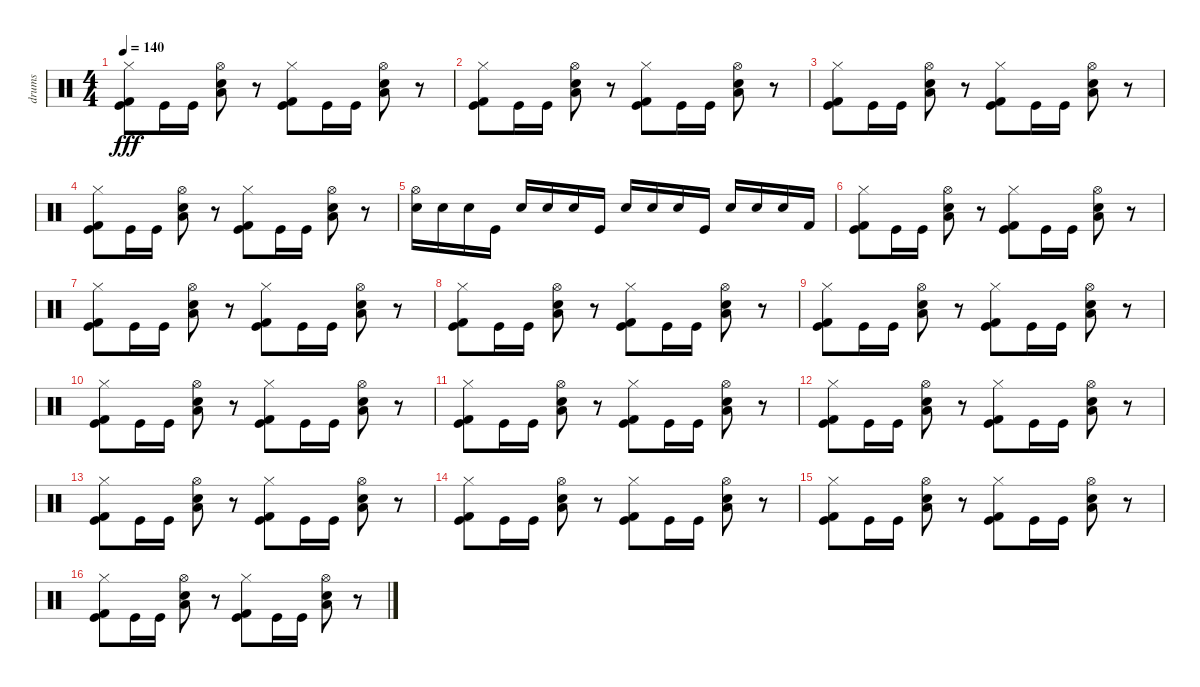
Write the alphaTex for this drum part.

\track ("drums" "drums") {instrument percussion}
\staff {score}
\articulation defaults
\ts (4 4)
\tempo 140
\clef neutral
\ks c
("Hi-Hat (closed)" "Kick (hit)" "Kick (hit) 2").8{dy fff} "Kick (hit)".16 "Kick (hit)".16 ("Hi-Hat (open)" "Low Tom (hit)" "Snare (hit) 2").8 r.8 ("Hi-Hat (closed)" "Kick (hit)" "Kick (hit) 2").8 "Kick (hit)".16 "Kick (hit)".16 ("Hi-Hat (open)" "Low Tom (hit)" "Snare (hit) 2").8 r.8 |
("Hi-Hat (closed)" "Kick (hit)" "Kick (hit) 2").8 "Kick (hit)".16 "Kick (hit)".16 ("Hi-Hat (open)" "Low Tom (hit)" "Snare (hit) 2").8 r.8 ("Hi-Hat (closed)" "Kick (hit)" "Kick (hit) 2").8 "Kick (hit)".16 "Kick (hit)".16 ("Hi-Hat (open)" "Low Tom (hit)" "Snare (hit) 2").8 r.8 |
("Hi-Hat (closed)" "Kick (hit)" "Kick (hit) 2").8 "Kick (hit)".16 "Kick (hit)".16 ("Hi-Hat (open)" "Low Tom (hit)" "Snare (hit) 2").8 r.8 ("Hi-Hat (closed)" "Kick (hit)" "Kick (hit) 2").8 "Kick (hit)".16 "Kick (hit)".16 ("Hi-Hat (open)" "Low Tom (hit)" "Snare (hit) 2").8 r.8 |
("Hi-Hat (closed)" "Kick (hit)" "Kick (hit) 2").8 "Kick (hit)".16 "Kick (hit)".16 ("Hi-Hat (open)" "Low Tom (hit)" "Snare (hit) 2").8 r.8 ("Hi-Hat (closed)" "Kick (hit)" "Kick (hit) 2").8 "Kick (hit)".16 "Kick (hit)".16 ("Hi-Hat (open)" "Low Tom (hit)" "Snare (hit) 2").8 r.8 |
("Hi-Hat (open)" "Snare (hit) 2").16 "Snare (hit) 2".16 "Snare (hit) 2".16 "Kick (hit)".16 "Snare (hit) 2".16 "Snare (hit) 2".16 "Snare (hit) 2".16 "Kick (hit)".16 "Snare (hit) 2".16 "Snare (hit) 2".16 "Snare (hit) 2".16 "Kick (hit)".16 "Snare (hit) 2".16 "Snare (hit) 2".16 "Snare (hit) 2".16 "Kick (hit) 2".16 |
("Hi-Hat (closed)" "Kick (hit)" "Kick (hit) 2").8 "Kick (hit)".16 "Kick (hit)".16 ("Hi-Hat (open)" "Low Tom (hit)" "Snare (hit) 2").8 r.8 ("Hi-Hat (closed)" "Kick (hit)" "Kick (hit) 2").8 "Kick (hit)".16 "Kick (hit)".16 ("Hi-Hat (open)" "Low Tom (hit)" "Snare (hit) 2").8 r.8 |
("Hi-Hat (closed)" "Kick (hit)" "Kick (hit) 2").8 "Kick (hit)".16 "Kick (hit)".16 ("Hi-Hat (open)" "Low Tom (hit)" "Snare (hit) 2").8 r.8 ("Hi-Hat (closed)" "Kick (hit)" "Kick (hit) 2").8 "Kick (hit)".16 "Kick (hit)".16 ("Hi-Hat (open)" "Low Tom (hit)" "Snare (hit) 2").8 r.8 |
("Hi-Hat (closed)" "Kick (hit)" "Kick (hit) 2").8 "Kick (hit)".16 "Kick (hit)".16 ("Hi-Hat (open)" "Low Tom (hit)" "Snare (hit) 2").8 r.8 ("Hi-Hat (closed)" "Kick (hit)" "Kick (hit) 2").8 "Kick (hit)".16 "Kick (hit)".16 ("Hi-Hat (open)" "Low Tom (hit)" "Snare (hit) 2").8 r.8 |
("Hi-Hat (closed)" "Kick (hit)" "Kick (hit) 2").8 "Kick (hit)".16 "Kick (hit)".16 ("Hi-Hat (open)" "Low Tom (hit)" "Snare (hit) 2").8 r.8 ("Hi-Hat (closed)" "Kick (hit)" "Kick (hit) 2").8 "Kick (hit)".16 "Kick (hit)".16 ("Hi-Hat (open)" "Low Tom (hit)" "Snare (hit) 2").8 r.8 |
("Hi-Hat (closed)" "Kick (hit)" "Kick (hit) 2").8 "Kick (hit)".16 "Kick (hit)".16 ("Hi-Hat (open)" "Low Tom (hit)" "Snare (hit) 2").8 r.8 ("Hi-Hat (closed)" "Kick (hit)" "Kick (hit) 2").8 "Kick (hit)".16 "Kick (hit)".16 ("Hi-Hat (open)" "Low Tom (hit)" "Snare (hit) 2").8 r.8 |
("Hi-Hat (closed)" "Kick (hit)" "Kick (hit) 2").8 "Kick (hit)".16 "Kick (hit)".16 ("Hi-Hat (open)" "Low Tom (hit)" "Snare (hit) 2").8 r.8 ("Hi-Hat (closed)" "Kick (hit)" "Kick (hit) 2").8 "Kick (hit)".16 "Kick (hit)".16 ("Hi-Hat (open)" "Low Tom (hit)" "Snare (hit) 2").8 r.8 |
("Hi-Hat (closed)" "Kick (hit)" "Kick (hit) 2").8 "Kick (hit)".16 "Kick (hit)".16 ("Hi-Hat (open)" "Low Tom (hit)" "Snare (hit) 2").8 r.8 ("Hi-Hat (closed)" "Kick (hit)" "Kick (hit) 2").8 "Kick (hit)".16 "Kick (hit)".16 ("Hi-Hat (open)" "Low Tom (hit)" "Snare (hit) 2").8 r.8 |
("Hi-Hat (closed)" "Kick (hit)" "Kick (hit) 2").8 "Kick (hit)".16 "Kick (hit)".16 ("Hi-Hat (open)" "Low Tom (hit)" "Snare (hit) 2").8 r.8 ("Hi-Hat (closed)" "Kick (hit)" "Kick (hit) 2").8 "Kick (hit)".16 "Kick (hit)".16 ("Hi-Hat (open)" "Low Tom (hit)" "Snare (hit) 2").8 r.8 |
("Hi-Hat (closed)" "Kick (hit)" "Kick (hit) 2").8 "Kick (hit)".16 "Kick (hit)".16 ("Hi-Hat (open)" "Low Tom (hit)" "Snare (hit) 2").8 r.8 ("Hi-Hat (closed)" "Kick (hit)" "Kick (hit) 2").8 "Kick (hit)".16 "Kick (hit)".16 ("Hi-Hat (open)" "Low Tom (hit)" "Snare (hit) 2").8 r.8 |
("Hi-Hat (closed)" "Kick (hit)" "Kick (hit) 2").8 "Kick (hit)".16 "Kick (hit)".16 ("Hi-Hat (open)" "Low Tom (hit)" "Snare (hit) 2").8 r.8 ("Hi-Hat (closed)" "Kick (hit)" "Kick (hit) 2").8 "Kick (hit)".16 "Kick (hit)".16 ("Hi-Hat (open)" "Low Tom (hit)" "Snare (hit) 2").8 r.8 |
("Hi-Hat (closed)" "Kick (hit)" "Kick (hit) 2").8 "Kick (hit)".16 "Kick (hit)".16 ("Hi-Hat (open)" "Low Tom (hit)" "Snare (hit) 2").8 r.8 ("Hi-Hat (closed)" "Kick (hit)" "Kick (hit) 2").8 "Kick (hit)".16 "Kick (hit)".16 ("Hi-Hat (open)" "Low Tom (hit)" "Snare (hit) 2").8 r.8
